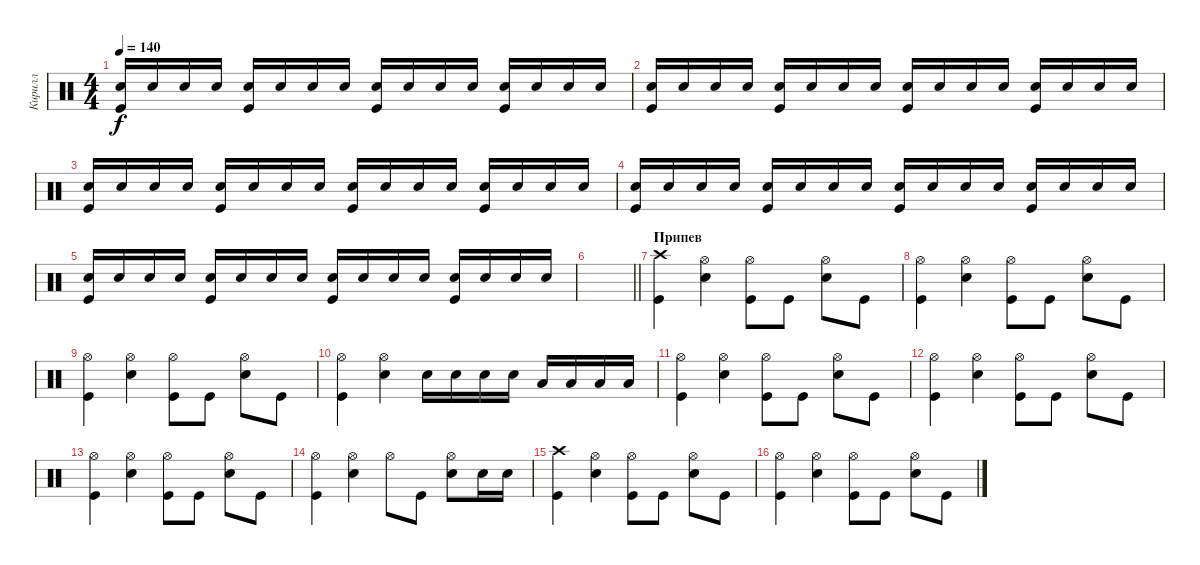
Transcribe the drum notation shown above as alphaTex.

\track ("Кирилл" "Кирилл") {instrument percussion}
\staff {score}
\articulation defaults
\ts (4 4)
\tempo 140
\clef neutral
\ks c
("Snare (hit) 2" "Kick (hit)").16{dy f} "Snare (hit) 2".16 "Snare (hit) 2".16 "Snare (hit) 2".16 ("Snare (hit) 2" "Kick (hit)").16 "Snare (hit) 2".16 "Snare (hit) 2".16 "Snare (hit) 2".16 ("Snare (hit) 2" "Kick (hit)").16 "Snare (hit) 2".16 "Snare (hit) 2".16 "Snare (hit) 2".16 ("Snare (hit) 2" "Kick (hit)").16 "Snare (hit) 2".16 "Snare (hit) 2".16 "Snare (hit) 2".16 |
("Snare (hit) 2" "Kick (hit)").16 "Snare (hit) 2".16 "Snare (hit) 2".16 "Snare (hit) 2".16 ("Snare (hit) 2" "Kick (hit)").16 "Snare (hit) 2".16 "Snare (hit) 2".16 "Snare (hit) 2".16 ("Snare (hit) 2" "Kick (hit)").16 "Snare (hit) 2".16 "Snare (hit) 2".16 "Snare (hit) 2".16 ("Snare (hit) 2" "Kick (hit)").16 "Snare (hit) 2".16 "Snare (hit) 2".16 "Snare (hit) 2".16 |
("Snare (hit) 2" "Kick (hit)").16 "Snare (hit) 2".16 "Snare (hit) 2".16 "Snare (hit) 2".16 ("Snare (hit) 2" "Kick (hit)").16 "Snare (hit) 2".16 "Snare (hit) 2".16 "Snare (hit) 2".16 ("Snare (hit) 2" "Kick (hit)").16 "Snare (hit) 2".16 "Snare (hit) 2".16 "Snare (hit) 2".16 ("Snare (hit) 2" "Kick (hit)").16 "Snare (hit) 2".16 "Snare (hit) 2".16 "Snare (hit) 2".16 |
("Snare (hit) 2" "Kick (hit)").16 "Snare (hit) 2".16 "Snare (hit) 2".16 "Snare (hit) 2".16 ("Snare (hit) 2" "Kick (hit)").16 "Snare (hit) 2".16 "Snare (hit) 2".16 "Snare (hit) 2".16 ("Snare (hit) 2" "Kick (hit)").16 "Snare (hit) 2".16 "Snare (hit) 2".16 "Snare (hit) 2".16 ("Snare (hit) 2" "Kick (hit)").16 "Snare (hit) 2".16 "Snare (hit) 2".16 "Snare (hit) 2".16 |
("Snare (hit) 2" "Kick (hit)").16 "Snare (hit) 2".16 "Snare (hit) 2".16 "Snare (hit) 2".16 ("Snare (hit) 2" "Kick (hit)").16 "Snare (hit) 2".16 "Snare (hit) 2".16 "Snare (hit) 2".16 ("Snare (hit) 2" "Kick (hit)").16 "Snare (hit) 2".16 "Snare (hit) 2".16 "Snare (hit) 2".16 ("Snare (hit) 2" "Kick (hit)").16 "Snare (hit) 2".16 "Snare (hit) 2".16 "Snare (hit) 2".16 |
\barLineRight lightlight
|
\section ("" "Припев")
("Crash high (hit)" "Kick (hit)").4 ("Hi-Hat (open)" "Snare (hit) 2").4 ("Hi-Hat (open)" "Kick (hit)").8 "Kick (hit)".8 ("Hi-Hat (open)" "Snare (hit) 2").8 "Kick (hit)".8 |
("Hi-Hat (open)" "Kick (hit)").4 ("Hi-Hat (open)" "Snare (hit) 2").4 ("Hi-Hat (open)" "Kick (hit)").8 "Kick (hit)".8 ("Hi-Hat (open)" "Snare (hit) 2").8 "Kick (hit)".8 |
("Hi-Hat (open)" "Kick (hit)").4 ("Hi-Hat (open)" "Snare (hit) 2").4 ("Hi-Hat (open)" "Kick (hit)").8 "Kick (hit)".8 ("Hi-Hat (open)" "Snare (hit) 2").8 "Kick (hit)".8 |
("Hi-Hat (open)" "Kick (hit)").4 ("Hi-Hat (open)" "Snare (hit) 2").4 "Snare (hit) 2".16 "Snare (hit) 2".16 "Snare (hit) 2".16 "Snare (hit) 2".16 "Low Tom (hit)".16 "Low Tom (hit)".16 "Low Tom (hit)".16 "Low Tom (hit)".16 |
("Hi-Hat (open)" "Kick (hit)").4 ("Hi-Hat (open)" "Snare (hit) 2").4 ("Hi-Hat (open)" "Kick (hit)").8 "Kick (hit)".8 ("Hi-Hat (open)" "Snare (hit) 2").8 "Kick (hit)".8 |
("Hi-Hat (open)" "Kick (hit)").4 ("Hi-Hat (open)" "Snare (hit) 2").4 ("Hi-Hat (open)" "Kick (hit)").8 "Kick (hit)".8 ("Hi-Hat (open)" "Snare (hit) 2").8 "Kick (hit)".8 |
("Hi-Hat (open)" "Kick (hit)").4 ("Hi-Hat (open)" "Snare (hit) 2").4 ("Hi-Hat (open)" "Kick (hit)").8 "Kick (hit)".8 ("Hi-Hat (open)" "Snare (hit) 2").8 "Kick (hit)".8 |
("Hi-Hat (open)" "Kick (hit)").4 ("Hi-Hat (open)" "Snare (hit) 2").4 "Hi-Hat (open)".8 "Kick (hit)".8 ("Hi-Hat (open)" "Snare (hit) 2").8 "Snare (hit) 2".16 "Snare (hit) 2".16 |
("Crash high (hit)" "Kick (hit)").4 ("Hi-Hat (open)" "Snare (hit) 2").4 ("Hi-Hat (open)" "Kick (hit)").8 "Kick (hit)".8 ("Hi-Hat (open)" "Snare (hit) 2").8 "Kick (hit)".8 |
("Hi-Hat (open)" "Kick (hit)").4 ("Hi-Hat (open)" "Snare (hit) 2").4 ("Hi-Hat (open)" "Kick (hit)").8 "Kick (hit)".8 ("Hi-Hat (open)" "Snare (hit) 2").8 "Kick (hit)".8
